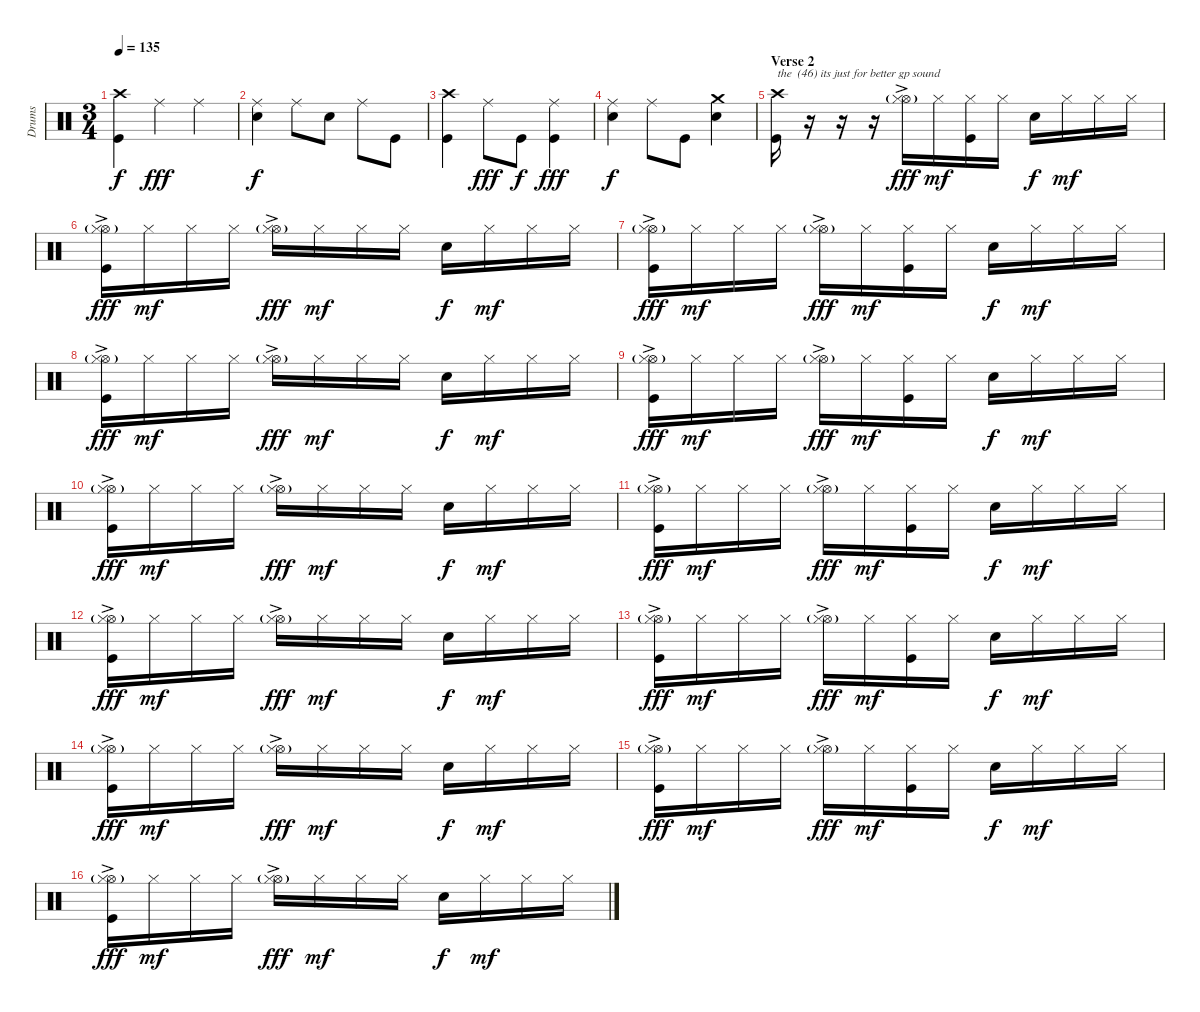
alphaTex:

\track ("Drums" "Drums") {instrument percussion}
\staff {score}
\articulation defaults
\ts (3 4)
\tempo 135
\clef neutral
\ks c
("Crash high (hit)" "Kick (hit)").4{dy f} "Ride (middle)".4{dy fff} "Ride (middle)".4 |
("Ride (middle)" "Snare (hit) 2").4{dy f} "Ride (middle)".8 "Snare (hit) 2".8 "Ride (middle)".8 "Kick (hit)".8 |
("Crash high (hit)" "Kick (hit)").4 "Ride (middle)".8{dy fff} "Kick (hit)".8{dy f} ("Ride (middle)" "Kick (hit)").4{dy fff} |
("Ride (middle)" "Snare (hit) 2").4{dy f} "Ride (middle)".8 "Kick (hit)".8 ("Crash medium (hit)" "Snare (hit) 2").4 |
\section ("" "Verse 2")
("Crash high (hit)" "Kick (hit)").16{txt "the  (46) its just for better gp sound"} r.16 r.16 r.16 ("Hi-Hat (open)"{g} "Hi-Hat (closed)"{ac}).16{dy fff} "Hi-Hat (closed)".16{dy mf} ("Hi-Hat (closed)" "Kick (hit)").16 "Hi-Hat (closed)".16 "Snare (hit) 2".16{dy f} "Hi-Hat (closed)".16{dy mf} "Hi-Hat (closed)".16 "Hi-Hat (closed)".16 |
("Hi-Hat (open)"{g} "Hi-Hat (closed)"{ac} "Kick (hit)").16{dy fff} "Hi-Hat (closed)".16{dy mf} "Hi-Hat (closed)".16 "Hi-Hat (closed)".16 ("Hi-Hat (open)"{g} "Hi-Hat (closed)"{ac}).16{dy fff} "Hi-Hat (closed)".16{dy mf} "Hi-Hat (closed)".16 "Hi-Hat (closed)".16 "Snare (hit) 2".16{dy f} "Hi-Hat (closed)".16{dy mf} "Hi-Hat (closed)".16 "Hi-Hat (closed)".16 |
("Hi-Hat (open)"{g} "Hi-Hat (closed)"{ac} "Kick (hit)").16{dy fff} "Hi-Hat (closed)".16{dy mf} "Hi-Hat (closed)".16 "Hi-Hat (closed)".16 ("Hi-Hat (open)"{g} "Hi-Hat (closed)"{ac}).16{dy fff} "Hi-Hat (closed)".16{dy mf} ("Hi-Hat (closed)" "Kick (hit)").16 "Hi-Hat (closed)".16 "Snare (hit) 2".16{dy f} "Hi-Hat (closed)".16{dy mf} "Hi-Hat (closed)".16 "Hi-Hat (closed)".16 |
("Hi-Hat (open)"{g} "Hi-Hat (closed)"{ac} "Kick (hit)").16{dy fff} "Hi-Hat (closed)".16{dy mf} "Hi-Hat (closed)".16 "Hi-Hat (closed)".16 ("Hi-Hat (open)"{g} "Hi-Hat (closed)"{ac}).16{dy fff} "Hi-Hat (closed)".16{dy mf} "Hi-Hat (closed)".16 "Hi-Hat (closed)".16 "Snare (hit) 2".16{dy f} "Hi-Hat (closed)".16{dy mf} "Hi-Hat (closed)".16 "Hi-Hat (closed)".16 |
("Hi-Hat (open)"{g} "Hi-Hat (closed)"{ac} "Kick (hit)").16{dy fff} "Hi-Hat (closed)".16{dy mf} "Hi-Hat (closed)".16 "Hi-Hat (closed)".16 ("Hi-Hat (open)"{g} "Hi-Hat (closed)"{ac}).16{dy fff} "Hi-Hat (closed)".16{dy mf} ("Hi-Hat (closed)" "Kick (hit)").16 "Hi-Hat (closed)".16 "Snare (hit) 2".16{dy f} "Hi-Hat (closed)".16{dy mf} "Hi-Hat (closed)".16 "Hi-Hat (closed)".16 |
("Hi-Hat (open)"{g} "Hi-Hat (closed)"{ac} "Kick (hit)").16{dy fff} "Hi-Hat (closed)".16{dy mf} "Hi-Hat (closed)".16 "Hi-Hat (closed)".16 ("Hi-Hat (open)"{g} "Hi-Hat (closed)"{ac}).16{dy fff} "Hi-Hat (closed)".16{dy mf} "Hi-Hat (closed)".16 "Hi-Hat (closed)".16 "Snare (hit) 2".16{dy f} "Hi-Hat (closed)".16{dy mf} "Hi-Hat (closed)".16 "Hi-Hat (closed)".16 |
("Hi-Hat (open)"{g} "Hi-Hat (closed)"{ac} "Kick (hit)").16{dy fff} "Hi-Hat (closed)".16{dy mf} "Hi-Hat (closed)".16 "Hi-Hat (closed)".16 ("Hi-Hat (open)"{g} "Hi-Hat (closed)"{ac}).16{dy fff} "Hi-Hat (closed)".16{dy mf} ("Hi-Hat (closed)" "Kick (hit)").16 "Hi-Hat (closed)".16 "Snare (hit) 2".16{dy f} "Hi-Hat (closed)".16{dy mf} "Hi-Hat (closed)".16 "Hi-Hat (closed)".16 |
("Hi-Hat (open)"{g} "Hi-Hat (closed)"{ac} "Kick (hit)").16{dy fff} "Hi-Hat (closed)".16{dy mf} "Hi-Hat (closed)".16 "Hi-Hat (closed)".16 ("Hi-Hat (open)"{g} "Hi-Hat (closed)"{ac}).16{dy fff} "Hi-Hat (closed)".16{dy mf} "Hi-Hat (closed)".16 "Hi-Hat (closed)".16 "Snare (hit) 2".16{dy f} "Hi-Hat (closed)".16{dy mf} "Hi-Hat (closed)".16 "Hi-Hat (closed)".16 |
("Hi-Hat (open)"{g} "Hi-Hat (closed)"{ac} "Kick (hit)").16{dy fff} "Hi-Hat (closed)".16{dy mf} "Hi-Hat (closed)".16 "Hi-Hat (closed)".16 ("Hi-Hat (open)"{g} "Hi-Hat (closed)"{ac}).16{dy fff} "Hi-Hat (closed)".16{dy mf} ("Hi-Hat (closed)" "Kick (hit)").16 "Hi-Hat (closed)".16 "Snare (hit) 2".16{dy f} "Hi-Hat (closed)".16{dy mf} "Hi-Hat (closed)".16 "Hi-Hat (closed)".16 |
("Hi-Hat (open)"{g} "Hi-Hat (closed)"{ac} "Kick (hit)").16{dy fff} "Hi-Hat (closed)".16{dy mf} "Hi-Hat (closed)".16 "Hi-Hat (closed)".16 ("Hi-Hat (open)"{g} "Hi-Hat (closed)"{ac}).16{dy fff} "Hi-Hat (closed)".16{dy mf} "Hi-Hat (closed)".16 "Hi-Hat (closed)".16 "Snare (hit) 2".16{dy f} "Hi-Hat (closed)".16{dy mf} "Hi-Hat (closed)".16 "Hi-Hat (closed)".16 |
("Hi-Hat (open)"{g} "Hi-Hat (closed)"{ac} "Kick (hit)").16{dy fff} "Hi-Hat (closed)".16{dy mf} "Hi-Hat (closed)".16 "Hi-Hat (closed)".16 ("Hi-Hat (open)"{g} "Hi-Hat (closed)"{ac}).16{dy fff} "Hi-Hat (closed)".16{dy mf} ("Hi-Hat (closed)" "Kick (hit)").16 "Hi-Hat (closed)".16 "Snare (hit) 2".16{dy f} "Hi-Hat (closed)".16{dy mf} "Hi-Hat (closed)".16 "Hi-Hat (closed)".16 |
("Hi-Hat (open)"{g} "Hi-Hat (closed)"{ac} "Kick (hit)").16{dy fff} "Hi-Hat (closed)".16{dy mf} "Hi-Hat (closed)".16 "Hi-Hat (closed)".16 ("Hi-Hat (open)"{g} "Hi-Hat (closed)"{ac}).16{dy fff} "Hi-Hat (closed)".16{dy mf} "Hi-Hat (closed)".16 "Hi-Hat (closed)".16 "Snare (hit) 2".16{dy f} "Hi-Hat (closed)".16{dy mf} "Hi-Hat (closed)".16 "Hi-Hat (closed)".16
